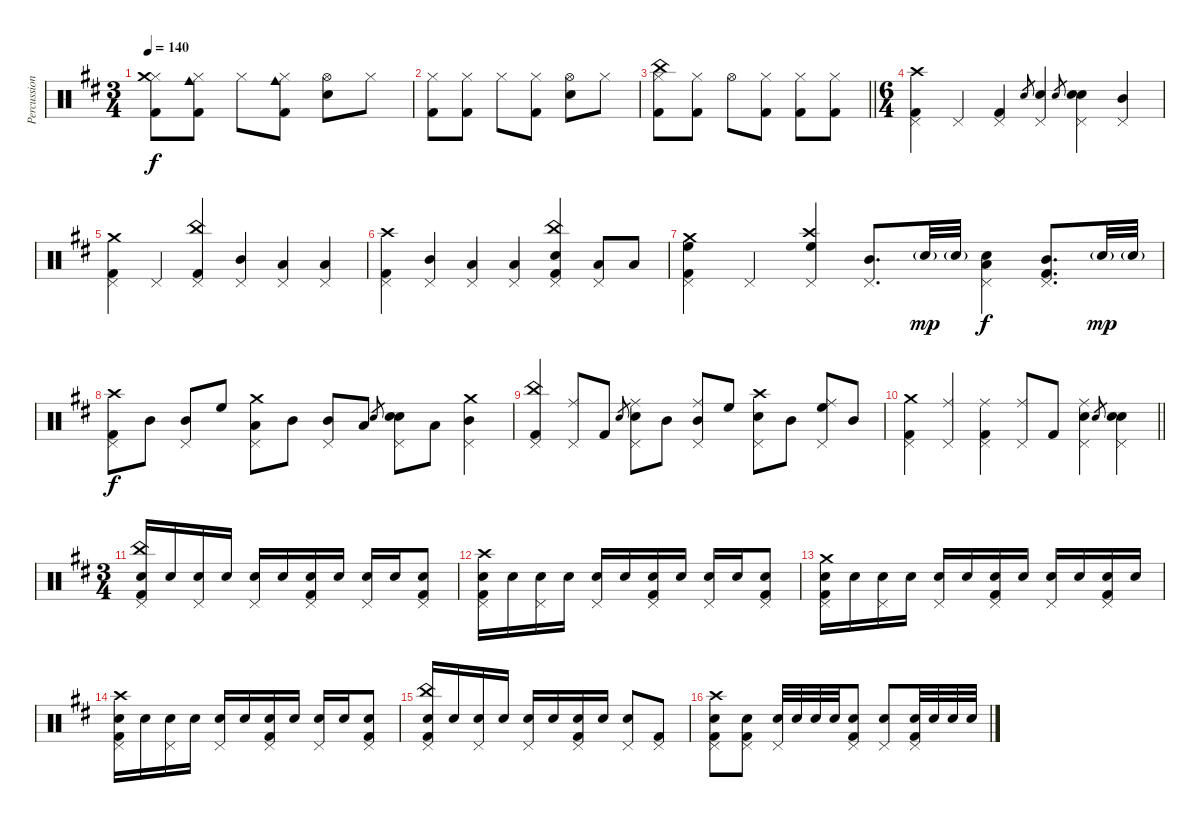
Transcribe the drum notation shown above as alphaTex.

\track ("Percussions" "Percussion") {instrument percussion}
\staff {score}
\articulation defaults
\ts (3 4)
\tempo 140
\clef neutral
\ks d
("Hi-Hat (closed)" "Crash medium (hit)" "Kick (hit) 2").8{dy f} ("Hi-Hat (closed)" "Cowbell medium (hit)" "Kick (hit) 2").8 "Hi-Hat (closed)".8 ("Hi-Hat (closed)" "Cowbell medium (hit)" "Kick (hit) 2").8 ("Hi-Hat (open)" "Snare (hit) 2").8 "Hi-Hat (closed)".8 |
("Hi-Hat (closed)" "Kick (hit) 2").8 ("Hi-Hat (closed)" "Kick (hit) 2").8 "Hi-Hat (closed)".8 ("Hi-Hat (closed)" "Kick (hit) 2").8 ("Hi-Hat (open)" "Snare (hit) 2").8 "Hi-Hat (closed)".8 |
\barLineRight lightlight
("Hi-Hat (closed)" "China (hit)" "Kick (hit) 2").8 ("Hi-Hat (closed)" "Kick (hit) 2").8 "Hi-Hat (open)".8 ("Hi-Hat (closed)" "Kick (hit) 2").8 ("Hi-Hat (closed)" "Kick (hit) 2").8 ("Hi-Hat (closed)" "Kick (hit) 2").8 |
\ts (6 4)
("Pedal Hi-Hat (hit)" "Crash high (hit)" "Kick (hit) 2").4 "Pedal Hi-Hat (hit)".4 ("Pedal Hi-Hat (hit)" "Kick (hit) 2").4 "Snare (hit) 2".8{gr} ("Pedal Hi-Hat (hit)" "Snare (hit) 2").4 "Snare (hit) 2".8{gr} ("Pedal Hi-Hat (hit)" "Snare (hit) 2" "Electric Snare (hit)").4 ("Pedal Hi-Hat (hit)" "Mid Tom (hit)").4 |
("Pedal Hi-Hat (hit)" "Crash medium (hit)" "Kick (hit) 2").4 "Pedal Hi-Hat (hit)".4 ("Pedal Hi-Hat (hit)" "China (hit)" "Kick (hit) 2").4 ("Pedal Hi-Hat (hit)" "Mid Tom (hit)").4 ("Pedal Hi-Hat (hit)" "Low Tom (hit)").4 ("Pedal Hi-Hat (hit)" "Low Tom (hit)").4 |
("Pedal Hi-Hat (hit)" "Crash high (hit)" "Kick (hit) 2").4 ("Pedal Hi-Hat (hit)" "Mid Tom (hit)").4 ("Pedal Hi-Hat (hit)" "Low Tom (hit)").4 ("Pedal Hi-Hat (hit)" "Low Tom (hit)").4 ("Pedal Hi-Hat (hit)" "China (hit)" "Snare (hit) 2" "Kick (hit) 2").4 ("Pedal Hi-Hat (hit)" "Low Tom (hit)").8 "Low Floor Tom (hit)".8 |
("Pedal Hi-Hat (hit)" "Crash medium (hit)" "High Floor Tom (hit)" "Kick (hit) 2").4 "Pedal Hi-Hat (hit)".4 ("Pedal Hi-Hat (hit)" "Crash high (hit)" "High Floor Tom (hit)").4 ("Pedal Hi-Hat (hit)" "Mid Tom (hit)").8{d} "Snare (hit) 2"{g}.32{dy mp} "Snare (hit) 2"{g}.32 ("Pedal Hi-Hat (hit)" "Low Tom (hit)" "Snare (hit) 2").4{dy f} ("Pedal Hi-Hat (hit)" "Mid Tom (hit)" "Kick (hit) 2").8{d} "Snare (hit) 2"{g}.32{dy mp} "Snare (hit) 2"{g}.32 |
("Pedal Hi-Hat (hit)" "Crash high (hit)" "Kick (hit) 2").8{dy f} "Mid Tom (hit)".8 ("Pedal Hi-Hat (hit)" "Mid Tom (hit)").8 "High Floor Tom (hit)".8 ("Pedal Hi-Hat (hit)" "Crash medium (hit)" "Low Tom (hit)").8 "Mid Tom (hit)".8 ("Pedal Hi-Hat (hit)" "Mid Tom (hit)").8 "Low Floor Tom (hit)".8 "Snare (hit) 2".8{gr} ("Pedal Hi-Hat (hit)" "Snare (hit) 2" "Electric Snare (hit)").8 "Low Tom (hit)".8 ("Pedal Hi-Hat (hit)" "Crash medium (hit)" "Mid Tom (hit)").4 |
("Pedal Hi-Hat (hit)" "China (hit)" "Kick (hit) 2").4 ("Pedal Hi-Hat (hit)" "Ride (middle)").8 "Kick (hit) 2".8 "Snare (hit) 2".8{gr} ("Pedal Hi-Hat (hit)" "Ride (middle)" "Snare (hit) 2").8 "Mid Tom (hit)".8 ("Pedal Hi-Hat (hit)" "Ride (middle)" "Mid Tom (hit)").8 "High Floor Tom (hit)".8 ("Pedal Hi-Hat (hit)" "Crash high (hit)" "Snare (hit) 2").8 "Mid Tom (hit)".8 ("Pedal Hi-Hat (hit)" "Ride (middle)" "High Floor Tom (hit)").8 "Mid Tom (hit)".8 |
\barLineRight lightlight
("Pedal Hi-Hat (hit)" "Crash medium (hit)" "Kick (hit) 2").4 ("Pedal Hi-Hat (hit)" "Ride (middle)").4 ("Pedal Hi-Hat (hit)" "Ride (middle)" "Kick (hit) 2").4 ("Pedal Hi-Hat (hit)" "Ride (middle)").8 "Kick (hit) 2".8 ("Pedal Hi-Hat (hit)" "Ride (middle)" "Snare (hit) 2").4 "Snare (hit) 2".8{gr} ("Pedal Hi-Hat (hit)" "Snare (hit) 2" "Electric Snare (hit)").4 |
\ts (3 4)
("Pedal Hi-Hat (hit)" "China (hit)" "Snare (hit) 2" "Kick (hit) 2").16{volume 12 balance 8} "Snare (hit) 2".16 ("Pedal Hi-Hat (hit)" "Snare (hit) 2").16 "Snare (hit) 2".16 ("Pedal Hi-Hat (hit)" "Snare (hit) 2").16 "Snare (hit) 2".16 ("Pedal Hi-Hat (hit)" "Snare (hit) 2" "Kick (hit) 2").16 "Snare (hit) 2".16 ("Pedal Hi-Hat (hit)" "Snare (hit) 2").16 "Snare (hit) 2".16 ("Pedal Hi-Hat (hit)" "Snare (hit) 2" "Kick (hit) 2").8 |
("Pedal Hi-Hat (hit)" "Crash high (hit)" "Snare (hit) 2" "Kick (hit) 2").16 "Snare (hit) 2".16 ("Pedal Hi-Hat (hit)" "Snare (hit) 2").16 "Snare (hit) 2".16 ("Pedal Hi-Hat (hit)" "Snare (hit) 2").16 "Snare (hit) 2".16 ("Pedal Hi-Hat (hit)" "Snare (hit) 2" "Kick (hit) 2").16 "Snare (hit) 2".16 ("Pedal Hi-Hat (hit)" "Snare (hit) 2").16 "Snare (hit) 2".16 ("Pedal Hi-Hat (hit)" "Snare (hit) 2" "Kick (hit) 2").8 |
("Pedal Hi-Hat (hit)" "Crash medium (hit)" "Snare (hit) 2" "Kick (hit) 2").16 "Snare (hit) 2".16 ("Pedal Hi-Hat (hit)" "Snare (hit) 2").16 "Snare (hit) 2".16 ("Pedal Hi-Hat (hit)" "Snare (hit) 2").16 "Snare (hit) 2".16 ("Pedal Hi-Hat (hit)" "Snare (hit) 2" "Kick (hit) 2").16 "Snare (hit) 2".16 ("Pedal Hi-Hat (hit)" "Snare (hit) 2").16 "Snare (hit) 2".16 ("Pedal Hi-Hat (hit)" "Snare (hit) 2" "Kick (hit) 2").16 "Snare (hit) 2".16 |
("Pedal Hi-Hat (hit)" "Crash high (hit)" "Snare (hit) 2" "Kick (hit) 2").16 "Snare (hit) 2".16 ("Pedal Hi-Hat (hit)" "Snare (hit) 2").16 "Snare (hit) 2".16 ("Pedal Hi-Hat (hit)" "Snare (hit) 2").16 "Snare (hit) 2".16 ("Pedal Hi-Hat (hit)" "Snare (hit) 2" "Kick (hit) 2").16 "Snare (hit) 2".16 ("Pedal Hi-Hat (hit)" "Snare (hit) 2").16 "Snare (hit) 2".16 ("Pedal Hi-Hat (hit)" "Snare (hit) 2" "Kick (hit) 2").8 |
("Pedal Hi-Hat (hit)" "China (hit)" "Snare (hit) 2" "Kick (hit) 2").16 "Snare (hit) 2".16 ("Pedal Hi-Hat (hit)" "Snare (hit) 2").16 "Snare (hit) 2".16 ("Pedal Hi-Hat (hit)" "Snare (hit) 2").16 "Snare (hit) 2".16 ("Pedal Hi-Hat (hit)" "Snare (hit) 2" "Kick (hit) 2").16 "Snare (hit) 2".16 ("Pedal Hi-Hat (hit)" "Snare (hit) 2").8 ("Pedal Hi-Hat (hit)" "Kick (hit) 2").8 |
("Pedal Hi-Hat (hit)" "Crash high (hit)" "Snare (hit) 2" "Kick (hit) 2").8 ("Pedal Hi-Hat (hit)" "Snare (hit) 2" "Kick (hit) 2").8 ("Pedal Hi-Hat (hit)" "Snare (hit) 2").32 "Snare (hit) 2".32 "Snare (hit) 2".32 "Snare (hit) 2".32 ("Pedal Hi-Hat (hit)" "Snare (hit) 2" "Kick (hit) 2").8 ("Pedal Hi-Hat (hit)" "Snare (hit) 2").8 ("Pedal Hi-Hat (hit)" "Snare (hit) 2" "Kick (hit) 2").32 "Snare (hit) 2".32 "Snare (hit) 2".32 "Snare (hit) 2".32
